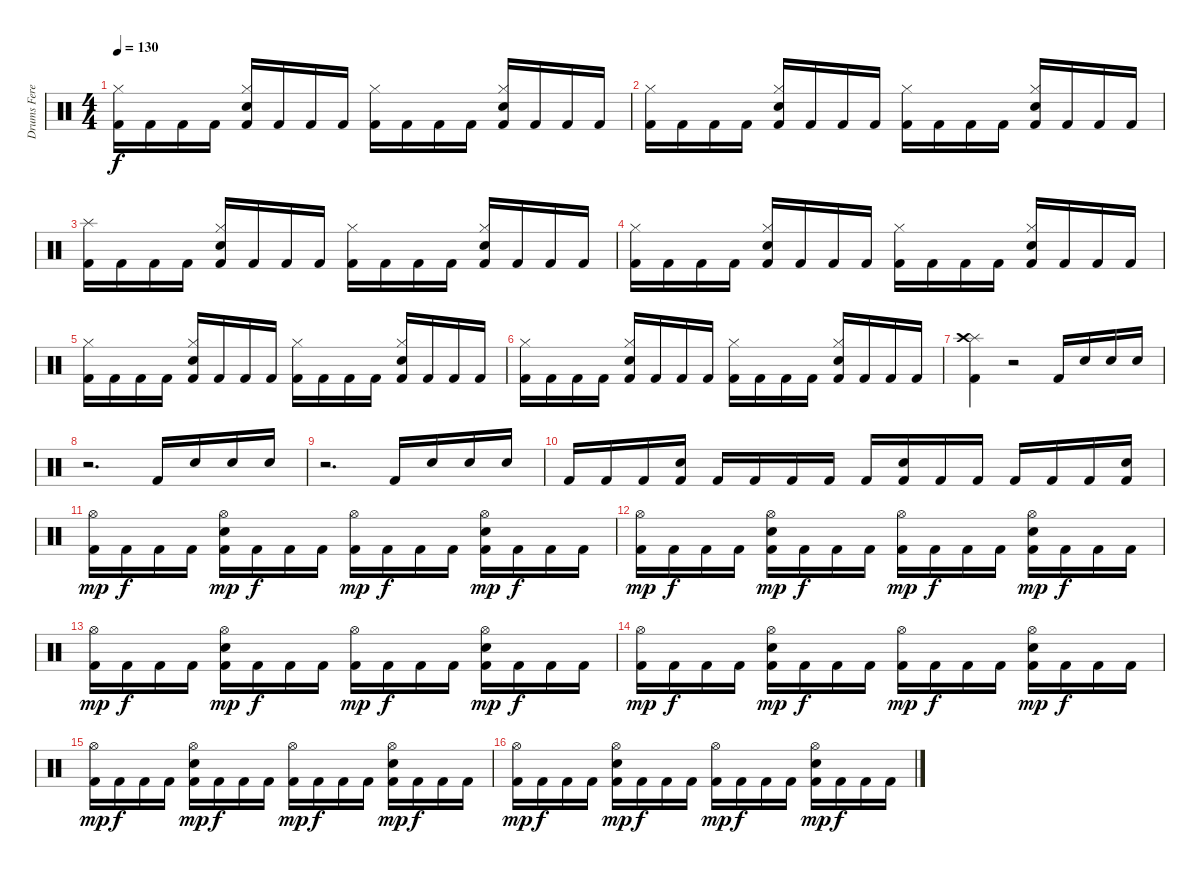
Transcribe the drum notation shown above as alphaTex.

\track ("Drums Feret" "Drums Fere") {instrument percussion}
\staff {score}
\articulation defaults
\ts (4 4)
\tempo 130
\clef neutral
\ks c
("Kick (hit) 2" "Hi-Hat (closed)").16{dy f} "Kick (hit) 2".16 "Kick (hit) 2".16 "Kick (hit) 2".16 ("Kick (hit) 2" "Electric Snare (hit)" "Hi-Hat (closed)").16 "Kick (hit) 2".16 "Kick (hit) 2".16 "Kick (hit) 2".16 ("Kick (hit) 2" "Hi-Hat (closed)").16 "Kick (hit) 2".16 "Kick (hit) 2".16 "Kick (hit) 2".16 ("Kick (hit) 2" "Electric Snare (hit)" "Hi-Hat (closed)").16 "Kick (hit) 2".16 "Kick (hit) 2".16 "Kick (hit) 2".16 |
("Kick (hit) 2" "Hi-Hat (closed)").16 "Kick (hit) 2".16 "Kick (hit) 2".16 "Kick (hit) 2".16 ("Kick (hit) 2" "Electric Snare (hit)" "Hi-Hat (closed)").16 "Kick (hit) 2".16 "Kick (hit) 2".16 "Kick (hit) 2".16 ("Kick (hit) 2" "Hi-Hat (closed)").16 "Kick (hit) 2".16 "Kick (hit) 2".16 "Kick (hit) 2".16 ("Kick (hit) 2" "Electric Snare (hit)" "Hi-Hat (closed)").16 "Kick (hit) 2".16 "Kick (hit) 2".16 "Kick (hit) 2".16 |
("Kick (hit) 2" "Splash (hit)").16 "Kick (hit) 2".16 "Kick (hit) 2".16 "Kick (hit) 2".16 ("Kick (hit) 2" "Electric Snare (hit)" "Hi-Hat (closed)").16 "Kick (hit) 2".16 "Kick (hit) 2".16 "Kick (hit) 2".16 ("Kick (hit) 2" "Hi-Hat (closed)").16 "Kick (hit) 2".16 "Kick (hit) 2".16 "Kick (hit) 2".16 ("Kick (hit) 2" "Electric Snare (hit)" "Hi-Hat (closed)").16 "Kick (hit) 2".16 "Kick (hit) 2".16 "Kick (hit) 2".16 |
("Kick (hit) 2" "Hi-Hat (closed)").16 "Kick (hit) 2".16 "Kick (hit) 2".16 "Kick (hit) 2".16 ("Kick (hit) 2" "Electric Snare (hit)" "Hi-Hat (closed)").16 "Kick (hit) 2".16 "Kick (hit) 2".16 "Kick (hit) 2".16 ("Kick (hit) 2" "Hi-Hat (closed)").16 "Kick (hit) 2".16 "Kick (hit) 2".16 "Kick (hit) 2".16 ("Kick (hit) 2" "Electric Snare (hit)" "Hi-Hat (closed)").16 "Kick (hit) 2".16 "Kick (hit) 2".16 "Kick (hit) 2".16 |
("Kick (hit) 2" "Hi-Hat (closed)").16 "Kick (hit) 2".16 "Kick (hit) 2".16 "Kick (hit) 2".16 ("Kick (hit) 2" "Electric Snare (hit)" "Hi-Hat (closed)").16 "Kick (hit) 2".16 "Kick (hit) 2".16 "Kick (hit) 2".16 ("Kick (hit) 2" "Hi-Hat (closed)").16 "Kick (hit) 2".16 "Kick (hit) 2".16 "Kick (hit) 2".16 ("Kick (hit) 2" "Electric Snare (hit)" "Hi-Hat (closed)").16 "Kick (hit) 2".16 "Kick (hit) 2".16 "Kick (hit) 2".16 |
("Kick (hit) 2" "Hi-Hat (closed)").16 "Kick (hit) 2".16 "Kick (hit) 2".16 "Kick (hit) 2".16 ("Kick (hit) 2" "Electric Snare (hit)" "Hi-Hat (closed)").16 "Kick (hit) 2".16 "Kick (hit) 2".16 "Kick (hit) 2".16 ("Kick (hit) 2" "Hi-Hat (closed)").16 "Kick (hit) 2".16 "Kick (hit) 2".16 "Kick (hit) 2".16 ("Kick (hit) 2" "Electric Snare (hit)" "Hi-Hat (closed)").16 "Kick (hit) 2".16 "Kick (hit) 2".16 "Kick (hit) 2".16 |
("Kick (hit) 2" "Splash (hit)" "Crash high (hit)").4 r.2 "Kick (hit) 2".16 "Electric Snare (hit)".16 "Electric Snare (hit)".16 "Electric Snare (hit)".16 |
r.2{d} "Kick (hit) 2".16 "Electric Snare (hit)".16 "Electric Snare (hit)".16 "Electric Snare (hit)".16 |
r.2{d} "Kick (hit) 2".16 "Electric Snare (hit)".16 "Electric Snare (hit)".16 "Electric Snare (hit)".16 |
"Kick (hit) 2".16 "Kick (hit) 2".16 "Kick (hit) 2".16 ("Kick (hit) 2" "Electric Snare (hit)").16 "Kick (hit) 2".16 "Kick (hit) 2".16 "Kick (hit) 2".16 "Kick (hit) 2".16 "Kick (hit) 2".16 ("Kick (hit) 2" "Electric Snare (hit)").16 "Kick (hit) 2".16 "Kick (hit) 2".16 "Kick (hit) 2".16 "Kick (hit) 2".16 "Kick (hit) 2".16 ("Kick (hit) 2" "Electric Snare (hit)").16 |
("Kick (hit) 2" "Hi-Hat (open)").16{dy mp} "Kick (hit) 2".16{dy f} "Kick (hit) 2".16 "Kick (hit) 2".16 ("Kick (hit) 2" "Electric Snare (hit)" "Hi-Hat (open)").16{dy mp} "Kick (hit) 2".16{dy f} "Kick (hit) 2".16 "Kick (hit) 2".16 ("Kick (hit) 2" "Hi-Hat (open)").16{dy mp} "Kick (hit) 2".16{dy f} "Kick (hit) 2".16 "Kick (hit) 2".16 ("Kick (hit) 2" "Electric Snare (hit)" "Hi-Hat (open)").16{dy mp} "Kick (hit) 2".16{dy f} "Kick (hit) 2".16 "Kick (hit) 2".16 |
("Kick (hit) 2" "Hi-Hat (open)").16{dy mp} "Kick (hit) 2".16{dy f} "Kick (hit) 2".16 "Kick (hit) 2".16 ("Kick (hit) 2" "Electric Snare (hit)" "Hi-Hat (open)").16{dy mp} "Kick (hit) 2".16{dy f} "Kick (hit) 2".16 "Kick (hit) 2".16 ("Kick (hit) 2" "Hi-Hat (open)").16{dy mp} "Kick (hit) 2".16{dy f} "Kick (hit) 2".16 "Kick (hit) 2".16 ("Kick (hit) 2" "Electric Snare (hit)" "Hi-Hat (open)").16{dy mp} "Kick (hit) 2".16{dy f} "Kick (hit) 2".16 "Kick (hit) 2".16 |
("Kick (hit) 2" "Hi-Hat (open)").16{dy mp} "Kick (hit) 2".16{dy f} "Kick (hit) 2".16 "Kick (hit) 2".16 ("Kick (hit) 2" "Electric Snare (hit)" "Hi-Hat (open)").16{dy mp} "Kick (hit) 2".16{dy f} "Kick (hit) 2".16 "Kick (hit) 2".16 ("Kick (hit) 2" "Hi-Hat (open)").16{dy mp} "Kick (hit) 2".16{dy f} "Kick (hit) 2".16 "Kick (hit) 2".16 ("Kick (hit) 2" "Electric Snare (hit)" "Hi-Hat (open)").16{dy mp} "Kick (hit) 2".16{dy f} "Kick (hit) 2".16 "Kick (hit) 2".16 |
("Kick (hit) 2" "Hi-Hat (open)").16{dy mp} "Kick (hit) 2".16{dy f} "Kick (hit) 2".16 "Kick (hit) 2".16 ("Kick (hit) 2" "Electric Snare (hit)" "Hi-Hat (open)").16{dy mp} "Kick (hit) 2".16{dy f} "Kick (hit) 2".16 "Kick (hit) 2".16 ("Kick (hit) 2" "Hi-Hat (open)").16{dy mp} "Kick (hit) 2".16{dy f} "Kick (hit) 2".16 "Kick (hit) 2".16 ("Kick (hit) 2" "Electric Snare (hit)" "Hi-Hat (open)").16{dy mp} "Kick (hit) 2".16{dy f} "Kick (hit) 2".16 "Kick (hit) 2".16 |
("Kick (hit) 2" "Hi-Hat (open)").16{dy mp} "Kick (hit) 2".16{dy f} "Kick (hit) 2".16 "Kick (hit) 2".16 ("Kick (hit) 2" "Electric Snare (hit)" "Hi-Hat (open)").16{dy mp} "Kick (hit) 2".16{dy f} "Kick (hit) 2".16 "Kick (hit) 2".16 ("Kick (hit) 2" "Hi-Hat (open)").16{dy mp} "Kick (hit) 2".16{dy f} "Kick (hit) 2".16 "Kick (hit) 2".16 ("Kick (hit) 2" "Electric Snare (hit)" "Hi-Hat (open)").16{dy mp} "Kick (hit) 2".16{dy f} "Kick (hit) 2".16 "Kick (hit) 2".16 |
("Kick (hit) 2" "Hi-Hat (open)").16{dy mp} "Kick (hit) 2".16{dy f} "Kick (hit) 2".16 "Kick (hit) 2".16 ("Kick (hit) 2" "Electric Snare (hit)" "Hi-Hat (open)").16{dy mp} "Kick (hit) 2".16{dy f} "Kick (hit) 2".16 "Kick (hit) 2".16 ("Kick (hit) 2" "Hi-Hat (open)").16{dy mp} "Kick (hit) 2".16{dy f} "Kick (hit) 2".16 "Kick (hit) 2".16 ("Kick (hit) 2" "Electric Snare (hit)" "Hi-Hat (open)").16{dy mp} "Kick (hit) 2".16{dy f} "Kick (hit) 2".16 "Kick (hit) 2".16
